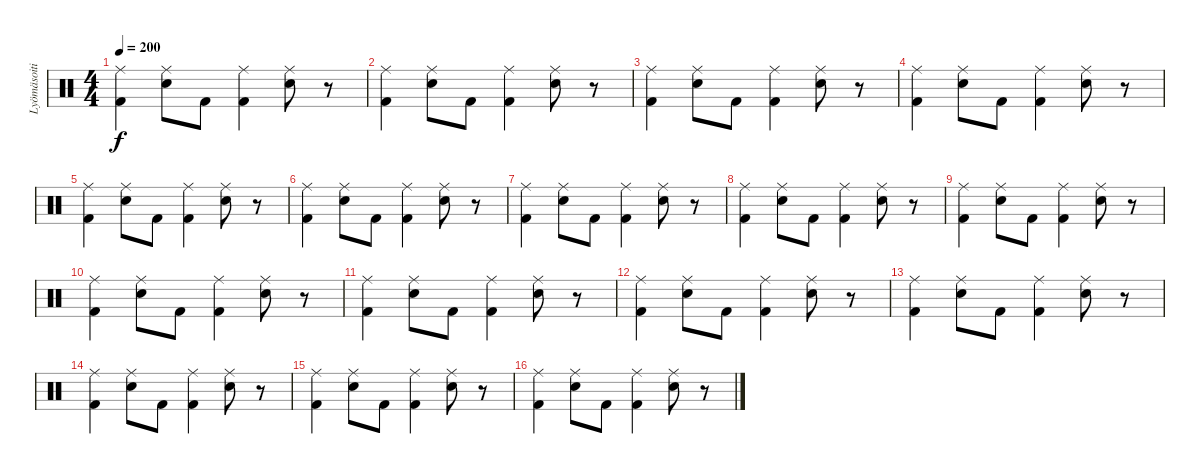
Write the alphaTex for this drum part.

\track ("Lyömäsoitin" "Lyömäsoiti") {instrument percussion}
\staff {score}
\articulation defaults
\ts (4 4)
\tempo 200
\clef neutral
\ks c
("Ride (middle)" "Kick (hit) 2").4{dy f} ("Ride (middle)" "Snare (hit) 2").8 "Kick (hit) 2".8 ("Ride (middle)" "Kick (hit) 2").4 ("Ride (middle)" "Snare (hit) 2").8 r.8 |
("Ride (middle)" "Kick (hit) 2").4 ("Ride (middle)" "Snare (hit) 2").8 "Kick (hit) 2".8 ("Ride (middle)" "Kick (hit) 2").4 ("Ride (middle)" "Snare (hit) 2").8 r.8 |
("Ride (middle)" "Kick (hit) 2").4 ("Ride (middle)" "Snare (hit) 2").8 "Kick (hit) 2".8 ("Ride (middle)" "Kick (hit) 2").4 ("Ride (middle)" "Snare (hit) 2").8 r.8 |
("Ride (middle)" "Kick (hit) 2").4 ("Ride (middle)" "Snare (hit) 2").8 "Kick (hit) 2".8 ("Ride (middle)" "Kick (hit) 2").4 ("Ride (middle)" "Snare (hit) 2").8 r.8 |
("Ride (middle)" "Kick (hit) 2").4 ("Ride (middle)" "Snare (hit) 2").8 "Kick (hit) 2".8 ("Ride (middle)" "Kick (hit) 2").4 ("Ride (middle)" "Snare (hit) 2").8 r.8 |
("Ride (middle)" "Kick (hit) 2").4 ("Ride (middle)" "Snare (hit) 2").8 "Kick (hit) 2".8 ("Ride (middle)" "Kick (hit) 2").4 ("Ride (middle)" "Snare (hit) 2").8 r.8 |
("Ride (middle)" "Kick (hit) 2").4 ("Ride (middle)" "Snare (hit) 2").8 "Kick (hit) 2".8 ("Ride (middle)" "Kick (hit) 2").4 ("Ride (middle)" "Snare (hit) 2").8 r.8 |
("Ride (middle)" "Kick (hit) 2").4 ("Ride (middle)" "Snare (hit) 2").8 "Kick (hit) 2".8 ("Ride (middle)" "Kick (hit) 2").4 ("Ride (middle)" "Snare (hit) 2").8 r.8 |
("Ride (middle)" "Kick (hit) 2").4 ("Ride (middle)" "Snare (hit) 2").8 "Kick (hit) 2".8 ("Ride (middle)" "Kick (hit) 2").4 ("Ride (middle)" "Snare (hit) 2").8 r.8 |
("Ride (middle)" "Kick (hit) 2").4 ("Ride (middle)" "Snare (hit) 2").8 "Kick (hit) 2".8 ("Ride (middle)" "Kick (hit) 2").4 ("Ride (middle)" "Snare (hit) 2").8 r.8 |
("Ride (middle)" "Kick (hit) 2").4 ("Ride (middle)" "Snare (hit) 2").8 "Kick (hit) 2".8 ("Ride (middle)" "Kick (hit) 2").4 ("Ride (middle)" "Snare (hit) 2").8 r.8 |
("Ride (middle)" "Kick (hit) 2").4 ("Ride (middle)" "Snare (hit) 2").8 "Kick (hit) 2".8 ("Ride (middle)" "Kick (hit) 2").4 ("Ride (middle)" "Snare (hit) 2").8 r.8 |
("Ride (middle)" "Kick (hit) 2").4 ("Ride (middle)" "Snare (hit) 2").8 "Kick (hit) 2".8 ("Ride (middle)" "Kick (hit) 2").4 ("Ride (middle)" "Snare (hit) 2").8 r.8 |
("Ride (middle)" "Kick (hit) 2").4 ("Ride (middle)" "Snare (hit) 2").8 "Kick (hit) 2".8 ("Ride (middle)" "Kick (hit) 2").4 ("Ride (middle)" "Snare (hit) 2").8 r.8 |
("Ride (middle)" "Kick (hit) 2").4 ("Ride (middle)" "Snare (hit) 2").8 "Kick (hit) 2".8 ("Ride (middle)" "Kick (hit) 2").4 ("Ride (middle)" "Snare (hit) 2").8 r.8 |
("Ride (middle)" "Kick (hit) 2").4 ("Ride (middle)" "Snare (hit) 2").8 "Kick (hit) 2".8 ("Ride (middle)" "Kick (hit) 2").4 ("Ride (middle)" "Snare (hit) 2").8 r.8
